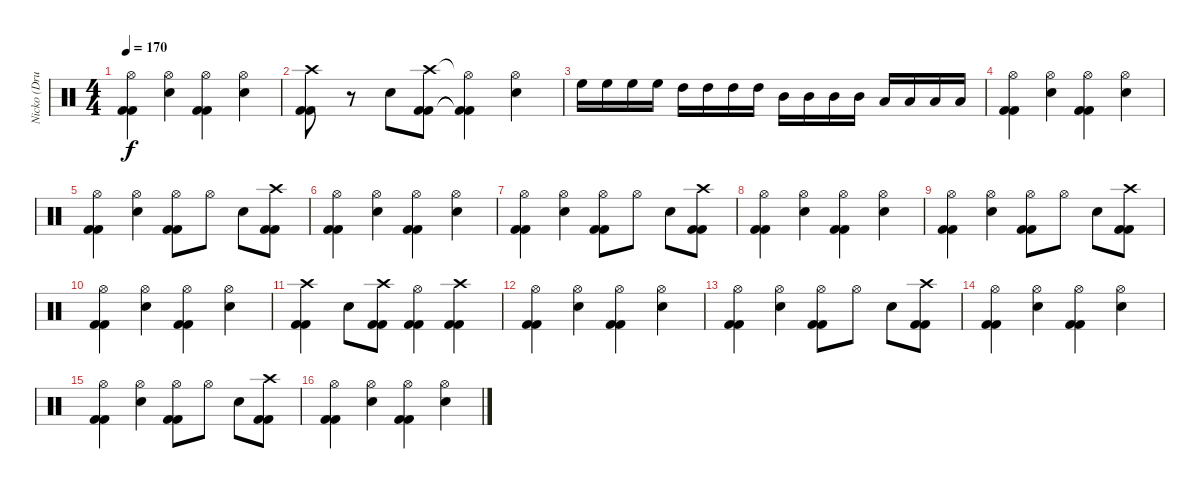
\track ("Nicko (Drums)" "Nicko (Dru") {instrument percussion}
\staff {score}
\articulation defaults
\ts (4 4)
\tempo 170
\clef neutral
\ks c
("Hi-Hat (open)" "Kick (hit) 2" "Kick (hit) 2").4{dy f} ("Hi-Hat (open)" "Snare (hit) 2").4 ("Hi-Hat (open)" "Kick (hit) 2" "Kick (hit) 2").4 ("Hi-Hat (open)" "Snare (hit) 2").4 |
("Crash high (hit)" "Kick (hit) 2" "Kick (hit) 2").8 r.8 "Snare (hit) 2".8 ("Crash high (hit)" "Kick (hit) 2" "Kick (hit) 2").8 ("Hi-Hat (open)"{t} "Kick (hit) 2"{t} "Kick (hit) 2"{t}).4 ("Hi-Hat (open)" "Snare (hit) 2").4 |
"High Floor Tom (hit)".16 "High Floor Tom (hit)".16 "High Floor Tom (hit)".16 "High Floor Tom (hit)".16 "High Tom (hit)".16 "High Tom (hit)".16 "High Tom (hit)".16 "High Tom (hit)".16 "Mid Tom (hit)".16 "Mid Tom (hit)".16 "Mid Tom (hit)".16 "Mid Tom (hit)".16 "Low Tom (hit)".16 "Low Tom (hit)".16 "Low Tom (hit)".16 "Low Tom (hit)".16 |
("Hi-Hat (open)" "Kick (hit) 2" "Kick (hit) 2").4 ("Hi-Hat (open)" "Snare (hit) 2").4 ("Hi-Hat (open)" "Kick (hit) 2" "Kick (hit) 2").4 ("Hi-Hat (open)" "Snare (hit) 2").4 |
("Hi-Hat (open)" "Kick (hit) 2" "Kick (hit) 2").4 ("Hi-Hat (open)" "Snare (hit) 2").4 ("Hi-Hat (open)" "Kick (hit) 2" "Kick (hit) 2").8 "Hi-Hat (open)".8 "Snare (hit) 2".8 ("Crash high (hit)" "Kick (hit) 2" "Kick (hit) 2").8 |
("Hi-Hat (open)" "Kick (hit) 2" "Kick (hit) 2").4 ("Hi-Hat (open)" "Snare (hit) 2").4 ("Hi-Hat (open)" "Kick (hit) 2" "Kick (hit) 2").4 ("Hi-Hat (open)" "Snare (hit) 2").4 |
("Hi-Hat (open)" "Kick (hit) 2" "Kick (hit) 2").4 ("Hi-Hat (open)" "Snare (hit) 2").4 ("Hi-Hat (open)" "Kick (hit) 2" "Kick (hit) 2").8 "Hi-Hat (open)".8 "Snare (hit) 2".8 ("Crash high (hit)" "Kick (hit) 2" "Kick (hit) 2").8 |
("Hi-Hat (open)" "Kick (hit) 2" "Kick (hit) 2").4 ("Hi-Hat (open)" "Snare (hit) 2").4 ("Hi-Hat (open)" "Kick (hit) 2" "Kick (hit) 2").4 ("Hi-Hat (open)" "Snare (hit) 2").4 |
("Hi-Hat (open)" "Kick (hit) 2" "Kick (hit) 2").4 ("Hi-Hat (open)" "Snare (hit) 2").4 ("Hi-Hat (open)" "Kick (hit) 2" "Kick (hit) 2").8 "Hi-Hat (open)".8 "Snare (hit) 2".8 ("Crash high (hit)" "Kick (hit) 2" "Kick (hit) 2").8 |
("Hi-Hat (open)" "Kick (hit) 2" "Kick (hit) 2").4 ("Hi-Hat (open)" "Snare (hit) 2").4 ("Hi-Hat (open)" "Kick (hit) 2" "Kick (hit) 2").4 ("Hi-Hat (open)" "Snare (hit) 2").4 |
("Crash high (hit)" "Kick (hit) 2" "Kick (hit) 2").4 "Snare (hit) 2".8 ("Crash high (hit)" "Kick (hit) 2" "Kick (hit) 2").8 ("Hi-Hat (open)" "Kick (hit) 2" "Kick (hit) 2").4 ("Crash high (hit)" "Kick (hit) 2" "Kick (hit) 2").4 |
("Hi-Hat (open)" "Kick (hit) 2" "Kick (hit) 2").4 ("Hi-Hat (open)" "Snare (hit) 2").4 ("Hi-Hat (open)" "Kick (hit) 2" "Kick (hit) 2").4 ("Hi-Hat (open)" "Snare (hit) 2").4 |
("Hi-Hat (open)" "Kick (hit) 2" "Kick (hit) 2").4 ("Hi-Hat (open)" "Snare (hit) 2").4 ("Hi-Hat (open)" "Kick (hit) 2" "Kick (hit) 2").8 "Hi-Hat (open)".8 "Snare (hit) 2".8 ("Crash high (hit)" "Kick (hit) 2" "Kick (hit) 2").8 |
("Hi-Hat (open)" "Kick (hit) 2" "Kick (hit) 2").4 ("Hi-Hat (open)" "Snare (hit) 2").4 ("Hi-Hat (open)" "Kick (hit) 2" "Kick (hit) 2").4 ("Hi-Hat (open)" "Snare (hit) 2").4 |
("Hi-Hat (open)" "Kick (hit) 2" "Kick (hit) 2").4 ("Hi-Hat (open)" "Snare (hit) 2").4 ("Hi-Hat (open)" "Kick (hit) 2" "Kick (hit) 2").8 "Hi-Hat (open)".8 "Snare (hit) 2".8 ("Crash high (hit)" "Kick (hit) 2" "Kick (hit) 2").8 |
("Hi-Hat (open)" "Kick (hit) 2" "Kick (hit) 2").4 ("Hi-Hat (open)" "Snare (hit) 2").4 ("Hi-Hat (open)" "Kick (hit) 2" "Kick (hit) 2").4 ("Hi-Hat (open)" "Snare (hit) 2").4
